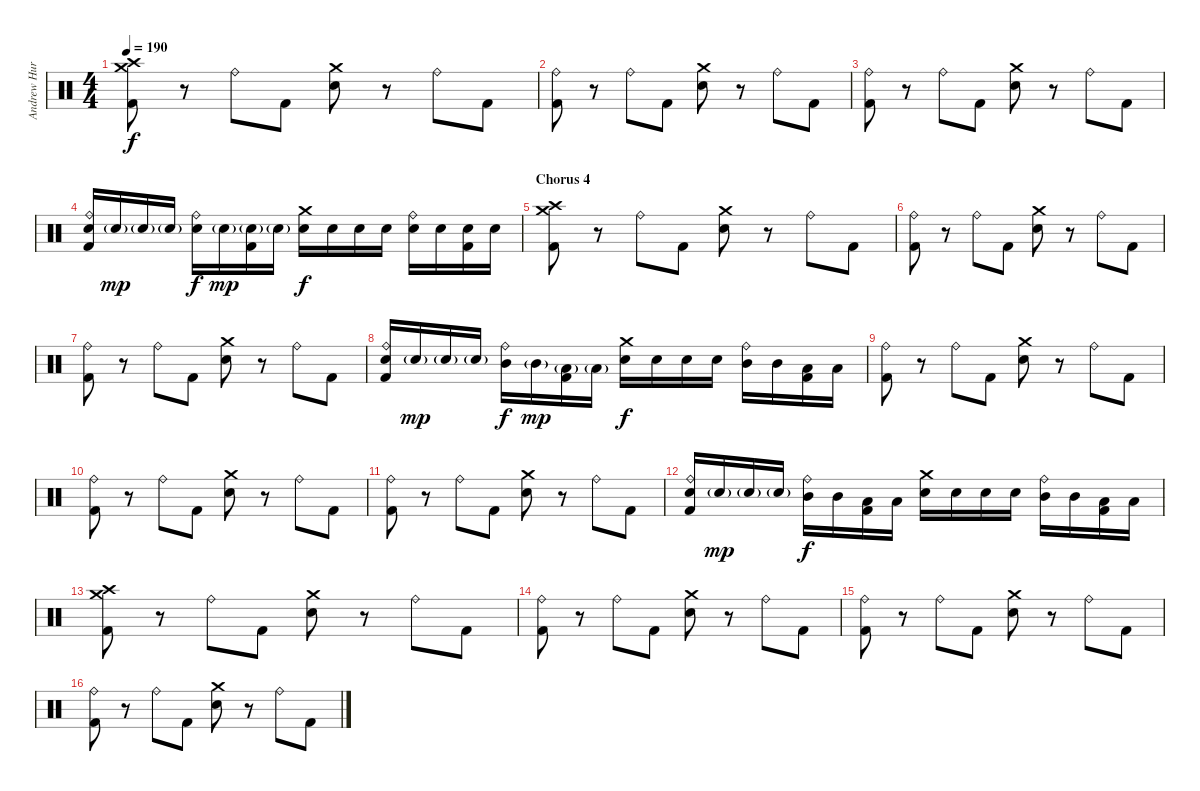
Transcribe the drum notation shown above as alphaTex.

\track ("Andrew Hurley (Drums)" "Andrew Hur") {instrument percussion}
\staff {score}
\articulation defaults
\ts (4 4)
\tempo 190
\clef neutral
\ks c
("Crash high (hit)" "Crash medium (hit)" "Kick (hit) 2").8{dy f} r.8 "Ride (bell)".8 "Kick (hit) 2".8 ("Crash medium (hit)" "Electric Snare (hit)").8 r.8 "Ride (bell)".8 "Kick (hit) 2".8 |
("Ride (bell)" "Kick (hit) 2").8 r.8 "Ride (bell)".8 "Kick (hit) 2".8 ("Crash medium (hit)" "Electric Snare (hit)").8 r.8 "Ride (bell)".8 "Kick (hit) 2".8 |
("Ride (bell)" "Kick (hit) 2").8 r.8 "Ride (bell)".8 "Kick (hit) 2".8 ("Crash medium (hit)" "Electric Snare (hit)").8 r.8 "Ride (bell)".8 "Kick (hit) 2".8 |
("Ride (bell)" "Electric Snare (hit)" "Kick (hit) 2").16 "Electric Snare (hit)"{g}.16{dy mp} "Electric Snare (hit)"{g}.16 "Electric Snare (hit)"{g}.16 ("Ride (bell)" "Electric Snare (hit)").16{dy f} "Electric Snare (hit)"{g}.16{dy mp} ("Electric Snare (hit)"{g} "Kick (hit) 2").16 "Electric Snare (hit)"{g}.16 ("Crash medium (hit)" "Electric Snare (hit)").16{dy f} "Electric Snare (hit)".16 "Electric Snare (hit)".16 "Electric Snare (hit)".16 ("Ride (bell)" "Electric Snare (hit)").16 "Electric Snare (hit)".16 ("Electric Snare (hit)" "Kick (hit) 2").16 "Electric Snare (hit)".16 |
\section ("" "Chorus 4")
("Crash medium (hit)" "Crash high (hit)" "Kick (hit) 2").8 r.8 "Ride (bell)".8 "Kick (hit) 2".8 ("Crash medium (hit)" "Electric Snare (hit)").8 r.8 "Ride (bell)".8 "Kick (hit) 2".8 |
("Ride (bell)" "Kick (hit) 2").8 r.8 "Ride (bell)".8 "Kick (hit) 2".8 ("Crash medium (hit)" "Electric Snare (hit)").8 r.8 "Ride (bell)".8 "Kick (hit) 2".8 |
("Ride (bell)" "Kick (hit) 2").8 r.8 "Ride (bell)".8 "Kick (hit) 2".8 ("Crash medium (hit)" "Electric Snare (hit)").8 r.8 "Ride (bell)".8 "Kick (hit) 2".8 |
("Ride (bell)" "Electric Snare (hit)" "Kick (hit) 2").16 "Electric Snare (hit)"{g}.16{dy mp} "Electric Snare (hit)"{g}.16 "Electric Snare (hit)"{g}.16 ("Ride (bell)" "Mid Tom (hit)").16{dy f} "Mid Tom (hit)"{g}.16{dy mp} ("Low Tom (hit)"{g} "Kick (hit) 2").16 "Low Tom (hit)"{g}.16 ("Crash medium (hit)" "Electric Snare (hit)").16{dy f} "Electric Snare (hit)".16 "Electric Snare (hit)".16 "Electric Snare (hit)".16 ("Ride (bell)" "Mid Tom (hit)").16 "Mid Tom (hit)".16 ("Low Tom (hit)" "Kick (hit) 2").16 "Low Tom (hit)".16 |
("Ride (bell)" "Kick (hit) 2").8 r.8 "Ride (bell)".8 "Kick (hit) 2".8 ("Crash medium (hit)" "Electric Snare (hit)").8 r.8 "Ride (bell)".8 "Kick (hit) 2".8 |
("Ride (bell)" "Kick (hit) 2").8 r.8 "Ride (bell)".8 "Kick (hit) 2".8 ("Crash medium (hit)" "Electric Snare (hit)").8 r.8 "Ride (bell)".8 "Kick (hit) 2".8 |
("Ride (bell)" "Kick (hit) 2").8 r.8 "Ride (bell)".8 "Kick (hit) 2".8 ("Crash medium (hit)" "Electric Snare (hit)").8 r.8 "Ride (bell)".8 "Kick (hit) 2".8 |
("Ride (bell)" "Electric Snare (hit)" "Kick (hit) 2").16 "Electric Snare (hit)"{g}.16{dy mp} "Electric Snare (hit)"{g}.16 "Electric Snare (hit)"{g}.16 ("Ride (bell)" "Mid Tom (hit)").16{dy f} "Mid Tom (hit)".16 ("Low Tom (hit)" "Kick (hit) 2").16 "Low Tom (hit)".16 ("Crash medium (hit)" "Electric Snare (hit)").16 "Electric Snare (hit)".16 "Electric Snare (hit)".16 "Electric Snare (hit)".16 ("Ride (bell)" "Mid Tom (hit)").16 "Mid Tom (hit)".16 ("Low Tom (hit)" "Kick (hit) 2").16 "Low Tom (hit)".16 |
("Crash medium (hit)" "Crash high (hit)" "Kick (hit) 2").8 r.8 "Ride (bell)".8 "Kick (hit) 2".8 ("Crash medium (hit)" "Electric Snare (hit)").8 r.8 "Ride (bell)".8 "Kick (hit) 2".8 |
("Ride (bell)" "Kick (hit) 2").8 r.8 "Ride (bell)".8 "Kick (hit) 2".8 ("Crash medium (hit)" "Electric Snare (hit)").8 r.8 "Ride (bell)".8 "Kick (hit) 2".8 |
("Ride (bell)" "Kick (hit) 2").8 r.8 "Ride (bell)".8 "Kick (hit) 2".8 ("Crash medium (hit)" "Electric Snare (hit)").8 r.8 "Ride (bell)".8 "Kick (hit) 2".8 |
("Ride (bell)" "Kick (hit) 2").8 r.8 "Ride (bell)".8 "Kick (hit) 2".8 ("Crash medium (hit)" "Electric Snare (hit)").8 r.8 "Ride (bell)".8 "Kick (hit) 2".8
